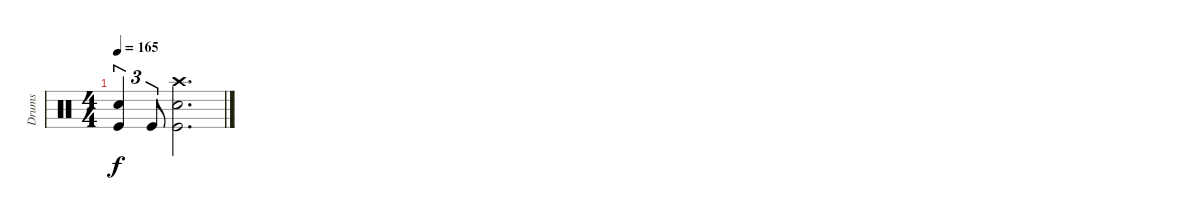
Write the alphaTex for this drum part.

\track ("Drums" "Drums") {instrument percussion}
\staff {score}
\articulation defaults
\ts (4 4)
\tempo 165
\clef neutral
\ks c
("Kick (hit)" "Snare (hit) 2").4{tu (3 2) dy f} "Kick (hit)".8{tu (3 2)} ("Kick (hit)" "Snare (hit) 2" "Crash high (hit)").2{d}
